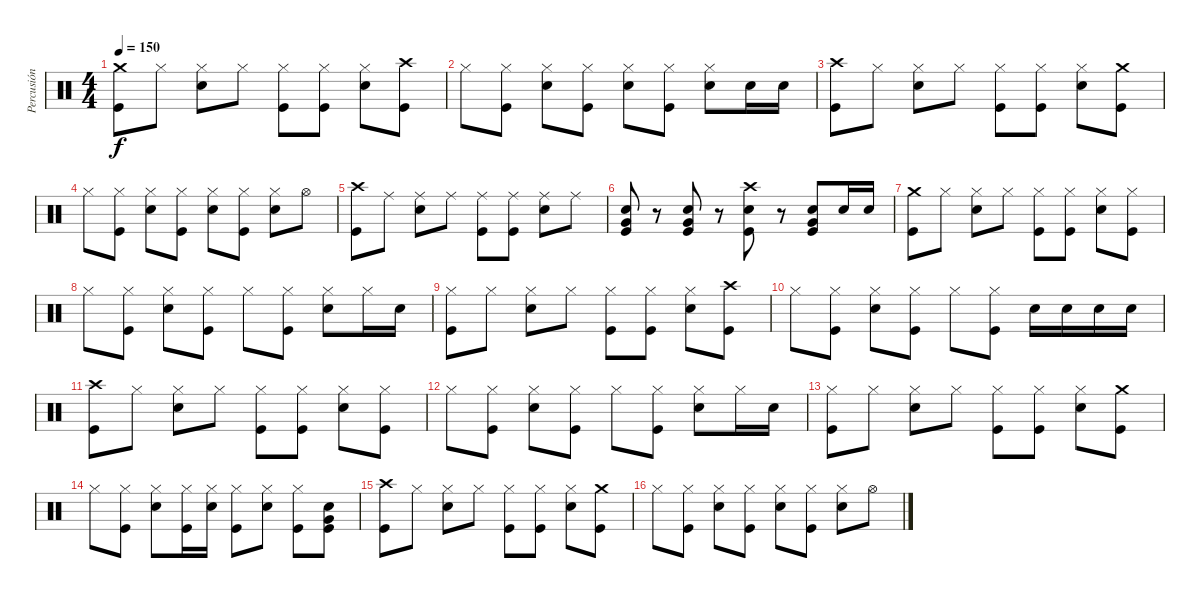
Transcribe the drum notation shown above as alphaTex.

\track ("Percusión" "Percusión") {instrument percussion}
\staff {score}
\articulation defaults
\ts (4 4)
\tempo 150
\clef neutral
\ks c
("Crash medium (hit)" "Kick (hit)").8{dy f} "Hi-Hat (closed)".8 ("Hi-Hat (closed)" "Snare (hit) 2").8 "Hi-Hat (closed)".8 ("Hi-Hat (closed)" "Kick (hit)").8 ("Hi-Hat (closed)" "Kick (hit)").8 ("Hi-Hat (closed)" "Snare (hit) 2").8 ("Crash high (hit)" "Kick (hit)").8 |
"Hi-Hat (closed)".8 ("Hi-Hat (closed)" "Kick (hit)").8 ("Hi-Hat (closed)" "Snare (hit) 2").8 ("Hi-Hat (closed)" "Kick (hit)").8 ("Hi-Hat (closed)" "Snare (hit) 2").8 ("Hi-Hat (closed)" "Kick (hit)").8 ("Hi-Hat (closed)" "Snare (hit) 2").8 "Snare (hit) 2".16 "Snare (hit) 2".16 |
("Crash high (hit)" "Kick (hit)").8 "Hi-Hat (closed)".8 ("Hi-Hat (closed)" "Snare (hit) 2").8 "Hi-Hat (closed)".8 ("Hi-Hat (closed)" "Kick (hit)").8 ("Hi-Hat (closed)" "Kick (hit)").8 ("Hi-Hat (closed)" "Snare (hit) 2").8 ("Crash medium (hit)" "Kick (hit)").8 |
"Hi-Hat (closed)".8 ("Hi-Hat (closed)" "Kick (hit)").8 ("Hi-Hat (closed)" "Snare (hit) 2").8 ("Hi-Hat (closed)" "Kick (hit)").8 ("Hi-Hat (closed)" "Snare (hit) 2").8 ("Hi-Hat (closed)" "Kick (hit)").8 ("Hi-Hat (closed)" "Snare (hit) 2").8 "Hi-Hat (open)".8 |
("Crash high (hit)" "Kick (hit)").8 "Ride (middle)".8 ("Ride (middle)" "Snare (hit) 2").8 "Ride (middle)".8 ("Ride (middle)" "Kick (hit)").8 ("Ride (middle)" "Kick (hit)").8 ("Ride (middle)" "Snare (hit) 2").8 "Ride (middle)".8 |
("Very Low Tom (hit)" "Snare (hit) 2" "Kick (hit)").8 r.8 ("Very Low Tom (hit)" "Snare (hit) 2" "Kick (hit)").8 r.8 ("Crash high (hit)" "Snare (hit) 2" "Kick (hit)").8 r.8 ("Very Low Tom (hit)" "Snare (hit) 2" "Kick (hit)").8 "Snare (hit) 2".16 "Snare (hit) 2".16 |
("Crash medium (hit)" "Kick (hit)").8 "Hi-Hat (closed)".8 ("Hi-Hat (closed)" "Snare (hit) 2").8 "Hi-Hat (closed)".8 ("Hi-Hat (closed)" "Kick (hit)").8 ("Hi-Hat (closed)" "Kick (hit)").8 ("Hi-Hat (closed)" "Snare (hit) 2").8 ("Hi-Hat (closed)" "Kick (hit)").8 |
"Hi-Hat (closed)".8 ("Hi-Hat (closed)" "Kick (hit)").8 ("Hi-Hat (closed)" "Snare (hit) 2").8 ("Hi-Hat (closed)" "Kick (hit)").8 "Hi-Hat (closed)".8 ("Hi-Hat (closed)" "Kick (hit)").8 ("Hi-Hat (closed)" "Snare (hit) 2").8 "Hi-Hat (closed)".16 "Snare (hit) 2".16 |
("Hi-Hat (closed)" "Kick (hit)").8 "Hi-Hat (closed)".8 ("Hi-Hat (closed)" "Snare (hit) 2").8 "Hi-Hat (closed)".8 ("Hi-Hat (closed)" "Kick (hit)").8 ("Hi-Hat (closed)" "Kick (hit)").8 ("Hi-Hat (closed)" "Snare (hit) 2").8 ("Crash high (hit)" "Kick (hit)").8 |
"Hi-Hat (closed)".8 ("Hi-Hat (closed)" "Kick (hit)").8 ("Hi-Hat (closed)" "Snare (hit) 2").8 ("Hi-Hat (closed)" "Kick (hit)").8 "Hi-Hat (closed)".8 ("Hi-Hat (closed)" "Kick (hit)").8 "Snare (hit) 2".16 "Snare (hit) 2".16 "Snare (hit) 2".16 "Snare (hit) 2".16 |
("Crash high (hit)" "Kick (hit)").8 "Hi-Hat (closed)".8 ("Hi-Hat (closed)" "Snare (hit) 2").8 "Hi-Hat (closed)".8 ("Hi-Hat (closed)" "Kick (hit)").8 ("Hi-Hat (closed)" "Kick (hit)").8 ("Hi-Hat (closed)" "Snare (hit) 2").8 ("Hi-Hat (closed)" "Kick (hit)").8 |
"Hi-Hat (closed)".8 ("Hi-Hat (closed)" "Kick (hit)").8 ("Hi-Hat (closed)" "Snare (hit) 2").8 ("Hi-Hat (closed)" "Kick (hit)").8 "Hi-Hat (closed)".8 ("Hi-Hat (closed)" "Kick (hit)").8 ("Hi-Hat (closed)" "Snare (hit) 2").8 "Hi-Hat (closed)".16 "Snare (hit) 2".16 |
("Hi-Hat (closed)" "Kick (hit)").8 "Hi-Hat (closed)".8 ("Hi-Hat (closed)" "Snare (hit) 2").8 "Hi-Hat (closed)".8 ("Hi-Hat (closed)" "Kick (hit)").8 ("Hi-Hat (closed)" "Kick (hit)").8 ("Hi-Hat (closed)" "Snare (hit) 2").8 ("Crash medium (hit)" "Kick (hit)").8 |
"Hi-Hat (closed)".8 ("Hi-Hat (closed)" "Kick (hit)").8 ("Hi-Hat (closed)" "Snare (hit) 2").8 ("Hi-Hat (closed)" "Kick (hit)").16 ("Hi-Hat (closed)" "Snare (hit) 2").16 ("Hi-Hat (closed)" "Kick (hit)").8 ("Hi-Hat (closed)" "Snare (hit) 2").8 ("Hi-Hat (closed)" "Kick (hit)").8 ("Very Low Tom (hit)" "Snare (hit) 2" "Kick (hit)").8 |
("Crash high (hit)" "Kick (hit)").8 "Hi-Hat (closed)".8 ("Hi-Hat (closed)" "Snare (hit) 2").8 "Hi-Hat (closed)".8 ("Hi-Hat (closed)" "Kick (hit)").8 ("Hi-Hat (closed)" "Kick (hit)").8 ("Hi-Hat (closed)" "Snare (hit) 2").8 ("Crash medium (hit)" "Kick (hit)").8 |
"Hi-Hat (closed)".8 ("Hi-Hat (closed)" "Kick (hit)").8 ("Hi-Hat (closed)" "Snare (hit) 2").8 ("Hi-Hat (closed)" "Kick (hit)").8 ("Hi-Hat (closed)" "Snare (hit) 2").8 ("Hi-Hat (closed)" "Kick (hit)").8 ("Hi-Hat (closed)" "Snare (hit) 2").8 "Hi-Hat (open)".8
